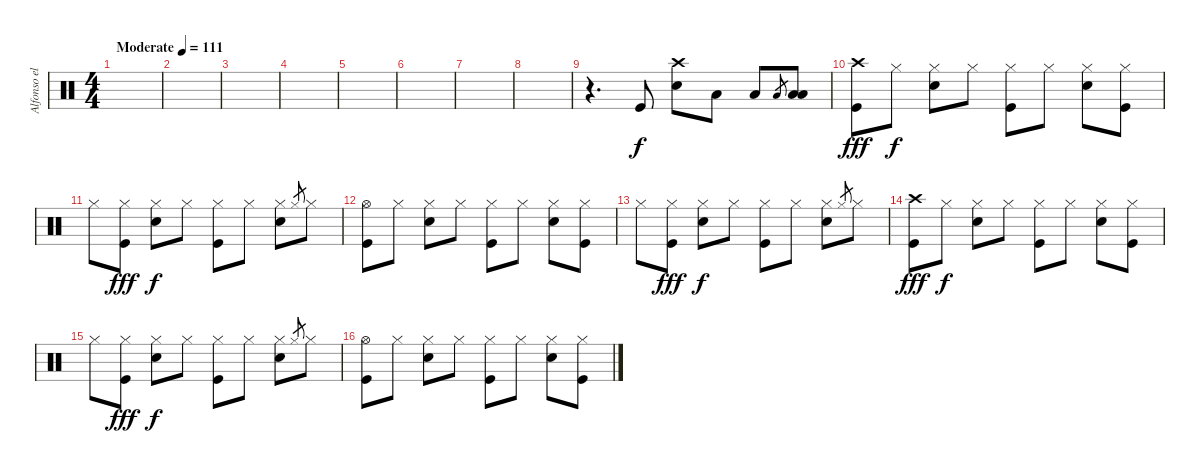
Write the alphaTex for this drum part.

\track ("Alfonso el flaco Andre" "Alfonso el") {instrument percussion}
\staff {score}
\articulation defaults
\ts (4 4)
\tempo (111 "Moderate")
\clef neutral
\ks c
|
|
|
|
|
|
|
|
r.4{d} "Kick (hit)".8 ("Crash high (hit)" "Snare (hit) 2").8 "Low Tom (hit)".8 "Low Tom (hit)".8 "Low Floor Tom (hit)".8{gr} ("Low Floor Tom (hit)" "Low Floor Tom (hit)").8 |
("Crash high (hit)" "Kick (hit)").8{dy fff} "Hi-Hat (closed)".8{dy f} ("Hi-Hat (closed)" "Snare (hit) 2").8 "Hi-Hat (closed)".8 ("Hi-Hat (closed)" "Kick (hit)").8 "Hi-Hat (closed)".8 ("Hi-Hat (closed)" "Snare (hit) 2").8 ("Hi-Hat (closed)" "Kick (hit)").8 |
"Hi-Hat (closed)".8 ("Hi-Hat (closed)" "Kick (hit)").8{dy fff} ("Hi-Hat (closed)" "Snare (hit) 2").8{dy f} "Hi-Hat (closed)".8 ("Hi-Hat (closed)" "Kick (hit)").8 "Hi-Hat (closed)".8 ("Hi-Hat (closed)" "Snare (hit) 2").8 "Hi-Hat (closed)".8{gr} "Hi-Hat (closed)".8 |
("Hi-Hat (open)" "Kick (hit)").8 "Hi-Hat (closed)".8 ("Hi-Hat (closed)" "Snare (hit) 2").8 "Hi-Hat (closed)".8 ("Hi-Hat (closed)" "Kick (hit)").8 "Hi-Hat (closed)".8 ("Hi-Hat (closed)" "Snare (hit) 2").8 ("Hi-Hat (closed)" "Kick (hit)").8 |
"Hi-Hat (closed)".8 ("Hi-Hat (closed)" "Kick (hit)").8{dy fff} ("Hi-Hat (closed)" "Snare (hit) 2").8{dy f} "Hi-Hat (closed)".8 ("Hi-Hat (closed)" "Kick (hit)").8 "Hi-Hat (closed)".8 ("Hi-Hat (closed)" "Snare (hit) 2").8 "Hi-Hat (closed)".8{gr} "Hi-Hat (closed)".8 |
("Crash high (hit)" "Kick (hit)").8{dy fff} "Hi-Hat (closed)".8{dy f} ("Hi-Hat (closed)" "Snare (hit) 2").8 "Hi-Hat (closed)".8 ("Hi-Hat (closed)" "Kick (hit)").8 "Hi-Hat (closed)".8 ("Hi-Hat (closed)" "Snare (hit) 2").8 ("Hi-Hat (closed)" "Kick (hit)").8 |
"Hi-Hat (closed)".8 ("Hi-Hat (closed)" "Kick (hit)").8{dy fff} ("Hi-Hat (closed)" "Snare (hit) 2").8{dy f} "Hi-Hat (closed)".8 ("Hi-Hat (closed)" "Kick (hit)").8 "Hi-Hat (closed)".8 ("Hi-Hat (closed)" "Snare (hit) 2").8 "Hi-Hat (closed)".8{gr} "Hi-Hat (closed)".8 |
("Hi-Hat (open)" "Kick (hit)").8 "Hi-Hat (closed)".8 ("Hi-Hat (closed)" "Snare (hit) 2").8 "Hi-Hat (closed)".8 ("Hi-Hat (closed)" "Kick (hit)").8 "Hi-Hat (closed)".8 ("Hi-Hat (closed)" "Snare (hit) 2").8 ("Hi-Hat (closed)" "Kick (hit)").8
